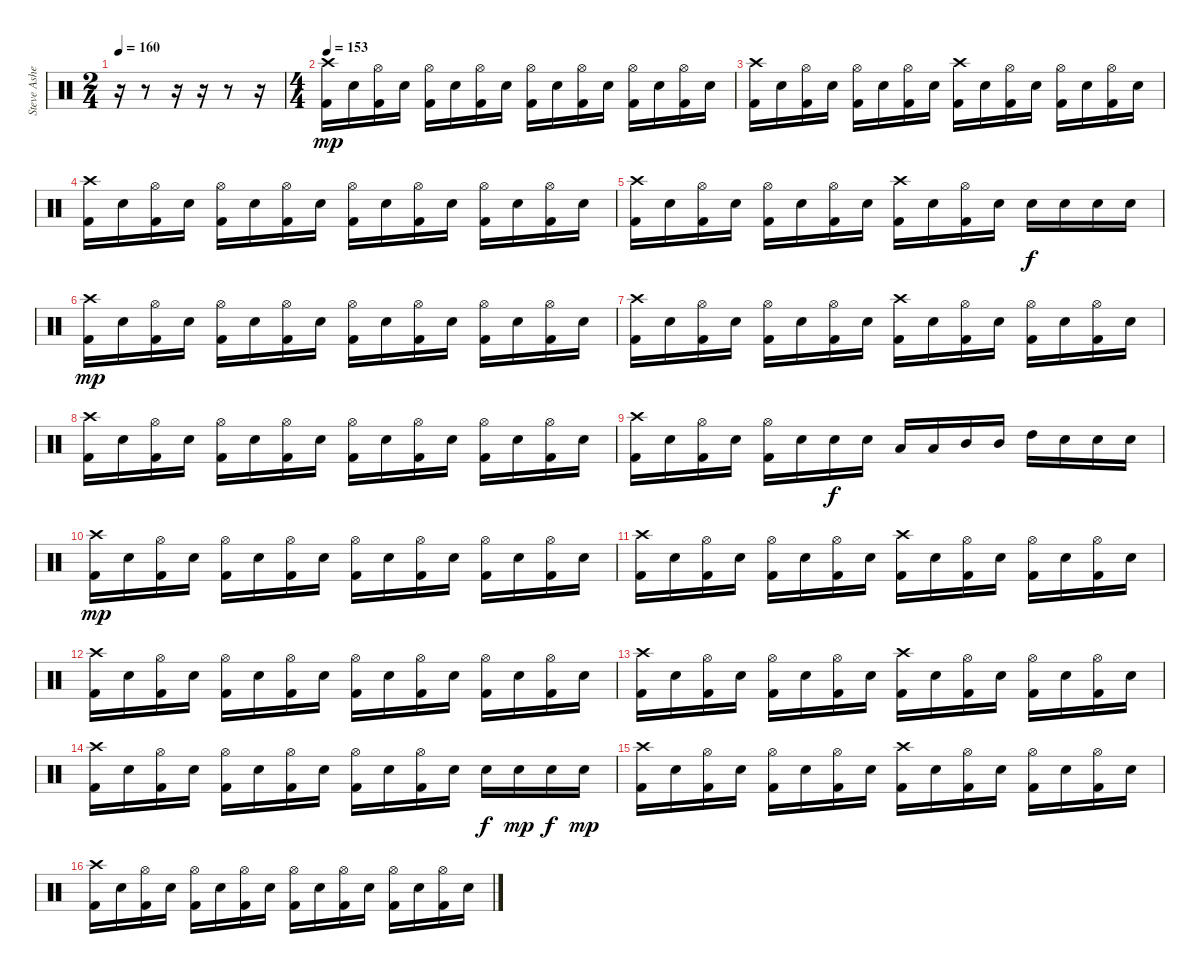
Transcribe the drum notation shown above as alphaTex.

\track ("Steve Asheim" "Steve Ashe") {instrument percussion}
\staff {score}
\articulation defaults
\ts (2 4)
\tempo 160
\clef neutral
\ks c
r.16{dy f} r.8 r.16 r.16 r.8 r.16 |
\ts (4 4)
\tempo 153
("Crash high (hit)" "Kick (hit) 2").16{dy mp} "Electric Snare (hit)".16 ("Hi-Hat (open)" "Kick (hit) 2").16 "Electric Snare (hit)".16 ("Hi-Hat (open)" "Kick (hit) 2").16 "Electric Snare (hit)".16 ("Hi-Hat (open)" "Kick (hit) 2").16 "Electric Snare (hit)".16 ("Hi-Hat (open)" "Kick (hit) 2").16 "Electric Snare (hit)".16 ("Hi-Hat (open)" "Kick (hit) 2").16 "Electric Snare (hit)".16 ("Hi-Hat (open)" "Kick (hit) 2").16 "Electric Snare (hit)".16 ("Hi-Hat (open)" "Kick (hit) 2").16 "Electric Snare (hit)".16 |
("Crash high (hit)" "Kick (hit) 2").16 "Electric Snare (hit)".16 ("Hi-Hat (open)" "Kick (hit) 2").16 "Electric Snare (hit)".16 ("Hi-Hat (open)" "Kick (hit) 2").16 "Electric Snare (hit)".16 ("Hi-Hat (open)" "Kick (hit) 2").16 "Electric Snare (hit)".16 ("Crash high (hit)" "Kick (hit) 2").16 "Electric Snare (hit)".16 ("Hi-Hat (open)" "Kick (hit) 2").16 "Electric Snare (hit)".16 ("Hi-Hat (open)" "Kick (hit) 2").16 "Electric Snare (hit)".16 ("Hi-Hat (open)" "Kick (hit) 2").16 "Electric Snare (hit)".16 |
("Crash high (hit)" "Kick (hit) 2").16 "Electric Snare (hit)".16 ("Hi-Hat (open)" "Kick (hit) 2").16 "Electric Snare (hit)".16 ("Hi-Hat (open)" "Kick (hit) 2").16 "Electric Snare (hit)".16 ("Hi-Hat (open)" "Kick (hit) 2").16 "Electric Snare (hit)".16 ("Hi-Hat (open)" "Kick (hit) 2").16 "Electric Snare (hit)".16 ("Hi-Hat (open)" "Kick (hit) 2").16 "Electric Snare (hit)".16 ("Hi-Hat (open)" "Kick (hit) 2").16 "Electric Snare (hit)".16 ("Hi-Hat (open)" "Kick (hit) 2").16 "Electric Snare (hit)".16 |
("Crash high (hit)" "Kick (hit) 2").16 "Electric Snare (hit)".16 ("Hi-Hat (open)" "Kick (hit) 2").16 "Electric Snare (hit)".16 ("Hi-Hat (open)" "Kick (hit) 2").16 "Electric Snare (hit)".16 ("Hi-Hat (open)" "Kick (hit) 2").16 "Electric Snare (hit)".16 ("Crash high (hit)" "Kick (hit) 2").16 "Electric Snare (hit)".16 ("Hi-Hat (open)" "Kick (hit) 2").16 "Electric Snare (hit)".16 "Electric Snare (hit)".16{dy f} "Electric Snare (hit)".16 "Electric Snare (hit)".16 "Electric Snare (hit)".16 |
("Crash high (hit)" "Kick (hit) 2").16{dy mp} "Electric Snare (hit)".16 ("Hi-Hat (open)" "Kick (hit) 2").16 "Electric Snare (hit)".16 ("Hi-Hat (open)" "Kick (hit) 2").16 "Electric Snare (hit)".16 ("Hi-Hat (open)" "Kick (hit) 2").16 "Electric Snare (hit)".16 ("Hi-Hat (open)" "Kick (hit) 2").16 "Electric Snare (hit)".16 ("Hi-Hat (open)" "Kick (hit) 2").16 "Electric Snare (hit)".16 ("Hi-Hat (open)" "Kick (hit) 2").16 "Electric Snare (hit)".16 ("Hi-Hat (open)" "Kick (hit) 2").16 "Electric Snare (hit)".16 |
("Crash high (hit)" "Kick (hit) 2").16 "Electric Snare (hit)".16 ("Hi-Hat (open)" "Kick (hit) 2").16 "Electric Snare (hit)".16 ("Hi-Hat (open)" "Kick (hit) 2").16 "Electric Snare (hit)".16 ("Hi-Hat (open)" "Kick (hit) 2").16 "Electric Snare (hit)".16 ("Crash high (hit)" "Kick (hit) 2").16 "Electric Snare (hit)".16 ("Hi-Hat (open)" "Kick (hit) 2").16 "Electric Snare (hit)".16 ("Hi-Hat (open)" "Kick (hit) 2").16 "Electric Snare (hit)".16 ("Hi-Hat (open)" "Kick (hit) 2").16 "Electric Snare (hit)".16 |
("Crash high (hit)" "Kick (hit) 2").16 "Electric Snare (hit)".16 ("Hi-Hat (open)" "Kick (hit) 2").16 "Electric Snare (hit)".16 ("Hi-Hat (open)" "Kick (hit) 2").16 "Electric Snare (hit)".16 ("Hi-Hat (open)" "Kick (hit) 2").16 "Electric Snare (hit)".16 ("Hi-Hat (open)" "Kick (hit) 2").16 "Electric Snare (hit)".16 ("Hi-Hat (open)" "Kick (hit) 2").16 "Electric Snare (hit)".16 ("Hi-Hat (open)" "Kick (hit) 2").16 "Electric Snare (hit)".16 ("Hi-Hat (open)" "Kick (hit) 2").16 "Electric Snare (hit)".16 |
("Crash high (hit)" "Kick (hit) 2").16 "Electric Snare (hit)".16 ("Hi-Hat (open)" "Kick (hit) 2").16 "Electric Snare (hit)".16 ("Hi-Hat (open)" "Kick (hit) 2").16 "Electric Snare (hit)".16 "Electric Snare (hit)".16{dy f} "Electric Snare (hit)".16 "Low Tom (hit)".16 "Low Tom (hit)".16 "Mid Tom (hit)".16 "Mid Tom (hit)".16 "High Tom (hit)".16 "Electric Snare (hit)".16 "Electric Snare (hit)".16 "Electric Snare (hit)".16 |
("Crash high (hit)" "Kick (hit) 2").16{dy mp} "Electric Snare (hit)".16 ("Hi-Hat (open)" "Kick (hit) 2").16 "Electric Snare (hit)".16 ("Hi-Hat (open)" "Kick (hit) 2").16 "Electric Snare (hit)".16 ("Hi-Hat (open)" "Kick (hit) 2").16 "Electric Snare (hit)".16 ("Hi-Hat (open)" "Kick (hit) 2").16 "Electric Snare (hit)".16 ("Hi-Hat (open)" "Kick (hit) 2").16 "Electric Snare (hit)".16 ("Hi-Hat (open)" "Kick (hit) 2").16 "Electric Snare (hit)".16 ("Hi-Hat (open)" "Kick (hit) 2").16 "Electric Snare (hit)".16 |
("Crash high (hit)" "Kick (hit) 2").16 "Electric Snare (hit)".16 ("Hi-Hat (open)" "Kick (hit) 2").16 "Electric Snare (hit)".16 ("Hi-Hat (open)" "Kick (hit) 2").16 "Electric Snare (hit)".16 ("Hi-Hat (open)" "Kick (hit) 2").16 "Electric Snare (hit)".16 ("Crash high (hit)" "Kick (hit) 2").16 "Electric Snare (hit)".16 ("Hi-Hat (open)" "Kick (hit) 2").16 "Electric Snare (hit)".16 ("Hi-Hat (open)" "Kick (hit) 2").16 "Electric Snare (hit)".16 ("Hi-Hat (open)" "Kick (hit) 2").16 "Electric Snare (hit)".16 |
("Crash high (hit)" "Kick (hit) 2").16 "Electric Snare (hit)".16 ("Hi-Hat (open)" "Kick (hit) 2").16 "Electric Snare (hit)".16 ("Hi-Hat (open)" "Kick (hit) 2").16 "Electric Snare (hit)".16 ("Hi-Hat (open)" "Kick (hit) 2").16 "Electric Snare (hit)".16 ("Hi-Hat (open)" "Kick (hit) 2").16 "Electric Snare (hit)".16 ("Hi-Hat (open)" "Kick (hit) 2").16 "Electric Snare (hit)".16 ("Hi-Hat (open)" "Kick (hit) 2").16 "Electric Snare (hit)".16 ("Hi-Hat (open)" "Kick (hit) 2").16 "Electric Snare (hit)".16 |
("Crash high (hit)" "Kick (hit) 2").16 "Electric Snare (hit)".16 ("Hi-Hat (open)" "Kick (hit) 2").16 "Electric Snare (hit)".16 ("Hi-Hat (open)" "Kick (hit) 2").16 "Electric Snare (hit)".16 ("Hi-Hat (open)" "Kick (hit) 2").16 "Electric Snare (hit)".16 ("Crash high (hit)" "Kick (hit) 2").16 "Electric Snare (hit)".16 ("Hi-Hat (open)" "Kick (hit) 2").16 "Electric Snare (hit)".16 ("Hi-Hat (open)" "Kick (hit) 2").16 "Electric Snare (hit)".16 ("Hi-Hat (open)" "Kick (hit) 2").16 "Electric Snare (hit)".16 |
("Crash high (hit)" "Kick (hit) 2").16 "Electric Snare (hit)".16 ("Hi-Hat (open)" "Kick (hit) 2").16 "Electric Snare (hit)".16 ("Hi-Hat (open)" "Kick (hit) 2").16 "Electric Snare (hit)".16 ("Hi-Hat (open)" "Kick (hit) 2").16 "Electric Snare (hit)".16 ("Hi-Hat (open)" "Kick (hit) 2").16 "Electric Snare (hit)".16 ("Hi-Hat (open)" "Kick (hit) 2").16 "Electric Snare (hit)".16 "Electric Snare (hit)".16{dy f} "Electric Snare (hit)".16{dy mp} "Electric Snare (hit)".16{dy f} "Electric Snare (hit)".16{dy mp} |
("Crash high (hit)" "Kick (hit) 2").16 "Electric Snare (hit)".16 ("Hi-Hat (open)" "Kick (hit) 2").16 "Electric Snare (hit)".16 ("Hi-Hat (open)" "Kick (hit) 2").16 "Electric Snare (hit)".16 ("Hi-Hat (open)" "Kick (hit) 2").16 "Electric Snare (hit)".16 ("Crash high (hit)" "Kick (hit) 2").16 "Electric Snare (hit)".16 ("Hi-Hat (open)" "Kick (hit) 2").16 "Electric Snare (hit)".16 ("Hi-Hat (open)" "Kick (hit) 2").16 "Electric Snare (hit)".16 ("Hi-Hat (open)" "Kick (hit) 2").16 "Electric Snare (hit)".16 |
("Crash high (hit)" "Kick (hit) 2").16 "Electric Snare (hit)".16 ("Hi-Hat (open)" "Kick (hit) 2").16 "Electric Snare (hit)".16 ("Hi-Hat (open)" "Kick (hit) 2").16 "Electric Snare (hit)".16 ("Hi-Hat (open)" "Kick (hit) 2").16 "Electric Snare (hit)".16 ("Hi-Hat (open)" "Kick (hit) 2").16 "Electric Snare (hit)".16 ("Hi-Hat (open)" "Kick (hit) 2").16 "Electric Snare (hit)".16 ("Hi-Hat (open)" "Kick (hit) 2").16 "Electric Snare (hit)".16 ("Hi-Hat (open)" "Kick (hit) 2").16 "Electric Snare (hit)".16
